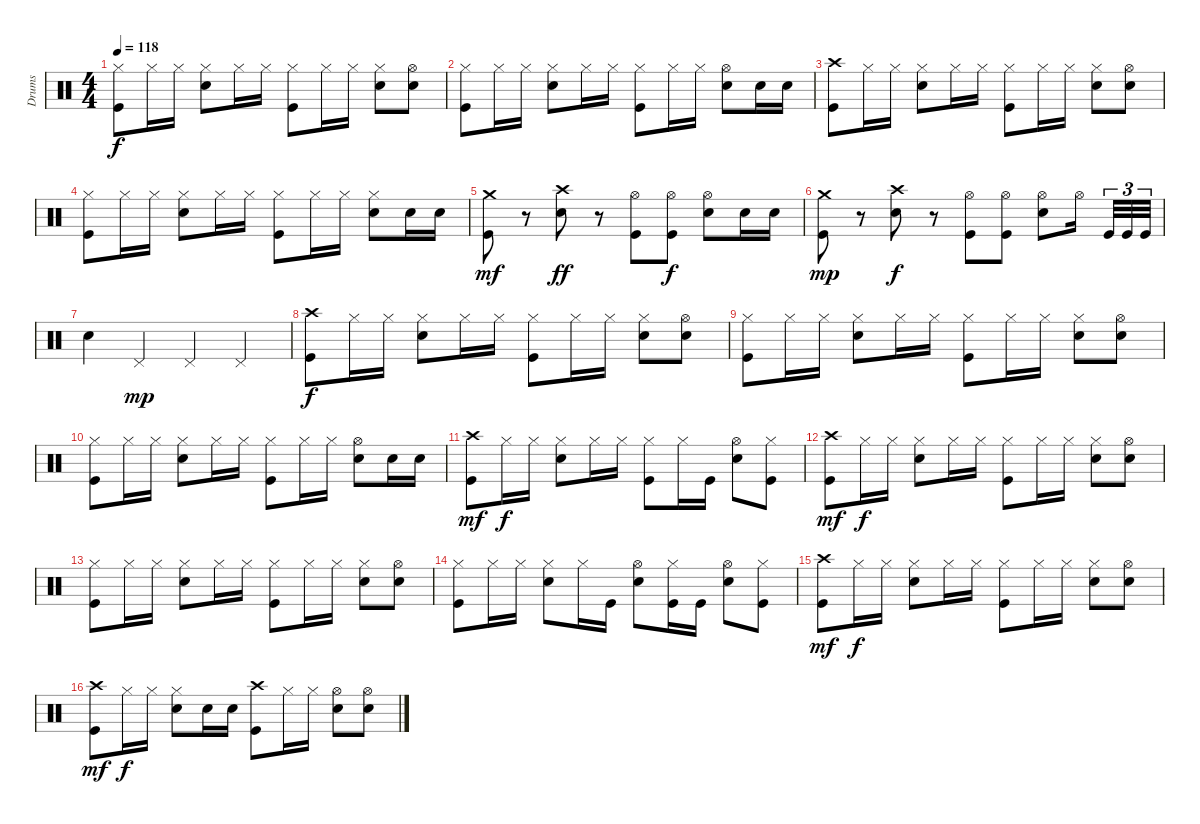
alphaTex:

\track ("Drums" "Drums") {instrument percussion}
\staff {score}
\articulation defaults
\ts (4 4)
\tempo 118
\clef neutral
\ks c
("Hi-Hat (closed)" "Kick (hit)").8{dy f} "Hi-Hat (closed)".16 "Hi-Hat (closed)".16 ("Hi-Hat (closed)" "Snare (hit) 2").8 "Hi-Hat (closed)".16 "Hi-Hat (closed)".16 ("Hi-Hat (closed)" "Kick (hit)").8 "Hi-Hat (closed)".16 "Hi-Hat (closed)".16 ("Hi-Hat (closed)" "Snare (hit) 2").8 ("Hi-Hat (open)" "Snare (hit) 2").8 |
("Hi-Hat (closed)" "Kick (hit)").8 "Hi-Hat (closed)".16 "Hi-Hat (closed)".16 ("Hi-Hat (closed)" "Snare (hit) 2").8 "Hi-Hat (closed)".16 "Hi-Hat (closed)".16 ("Hi-Hat (closed)" "Kick (hit)").8 "Hi-Hat (closed)".16 "Hi-Hat (closed)".16 ("Hi-Hat (open)" "Snare (hit) 2").8 "Snare (hit) 2".16 "Snare (hit) 2".16 |
("Crash high (hit)" "Kick (hit)").8 "Hi-Hat (closed)".16 "Hi-Hat (closed)".16 ("Hi-Hat (closed)" "Snare (hit) 2").8 "Hi-Hat (closed)".16 "Hi-Hat (closed)".16 ("Hi-Hat (closed)" "Kick (hit)").8 "Hi-Hat (closed)".16 "Hi-Hat (closed)".16 ("Hi-Hat (closed)" "Snare (hit) 2").8 ("Hi-Hat (open)" "Snare (hit) 2").8 |
("Hi-Hat (closed)" "Kick (hit)").8 "Hi-Hat (closed)".16 "Hi-Hat (closed)".16 ("Hi-Hat (closed)" "Snare (hit) 2").8 "Hi-Hat (closed)".16 "Hi-Hat (closed)".16 ("Hi-Hat (closed)" "Kick (hit)").8 "Hi-Hat (closed)".16 "Hi-Hat (closed)".16 ("Hi-Hat (closed)" "Snare (hit) 2").8 "Snare (hit) 2".16 "Snare (hit) 2".16 |
("Crash medium (hit)" "Kick (hit)").8{dy mf} r.8 ("Crash high (hit)" "Snare (hit) 2").8{dy ff} r.8 ("Hi-Hat (open)" "Kick (hit)").8 ("Hi-Hat (open)" "Kick (hit)").8{dy f} ("Hi-Hat (open)" "Snare (hit) 2").8 "Snare (hit) 2".16 "Snare (hit) 2".16 |
("Crash medium (hit)" "Kick (hit)").8{dy mp} r.8 ("Crash high (hit)" "Snare (hit) 2").8{dy f} r.8 ("Hi-Hat (open)" "Kick (hit)").8 ("Hi-Hat (open)" "Kick (hit)").8 ("Hi-Hat (open)" "Snare (hit) 2").8 "Hi-Hat (open)".16 "Kick (hit)".32{tu (3 2)} "Kick (hit)".32{tu (3 2)} "Kick (hit)".32{tu (3 2)} |
"Snare (hit) 2".4 "Pedal Hi-Hat (hit)".4{dy mp} "Pedal Hi-Hat (hit)".4 "Pedal Hi-Hat (hit)".4 |
("Crash high (hit)" "Kick (hit)").8{dy f} "Hi-Hat (closed)".16 "Hi-Hat (closed)".16 ("Hi-Hat (closed)" "Snare (hit) 2").8 "Hi-Hat (closed)".16 "Hi-Hat (closed)".16 ("Hi-Hat (closed)" "Kick (hit)").8 "Hi-Hat (closed)".16 "Hi-Hat (closed)".16 ("Hi-Hat (closed)" "Snare (hit) 2").8 ("Hi-Hat (open)" "Snare (hit) 2").8 |
("Hi-Hat (closed)" "Kick (hit)").8 "Hi-Hat (closed)".16 "Hi-Hat (closed)".16 ("Hi-Hat (closed)" "Snare (hit) 2").8 "Hi-Hat (closed)".16 "Hi-Hat (closed)".16 ("Hi-Hat (closed)" "Kick (hit)").8 "Hi-Hat (closed)".16 "Hi-Hat (closed)".16 ("Hi-Hat (closed)" "Snare (hit) 2").8 ("Hi-Hat (open)" "Snare (hit) 2").8 |
("Hi-Hat (closed)" "Kick (hit)").8 "Hi-Hat (closed)".16 "Hi-Hat (closed)".16 ("Hi-Hat (closed)" "Snare (hit) 2").8 "Hi-Hat (closed)".16 "Hi-Hat (closed)".16 ("Hi-Hat (closed)" "Kick (hit)").8 "Hi-Hat (closed)".16 "Hi-Hat (closed)".16 ("Hi-Hat (open)" "Snare (hit) 2").8 "Snare (hit) 2".16 "Snare (hit) 2".16 |
("Crash high (hit)" "Kick (hit)").8{dy mf} "Hi-Hat (closed)".16{dy f} "Hi-Hat (closed)".16 ("Hi-Hat (closed)" "Snare (hit) 2").8 "Hi-Hat (closed)".16 "Hi-Hat (closed)".16 ("Hi-Hat (closed)" "Kick (hit)").8 "Hi-Hat (closed)".16 "Kick (hit)".16 ("Hi-Hat (open)" "Snare (hit) 2").8 ("Hi-Hat (closed)" "Kick (hit)").8 |
("Crash high (hit)" "Kick (hit)").8{dy mf} "Hi-Hat (closed)".16{dy f} "Hi-Hat (closed)".16 ("Hi-Hat (closed)" "Snare (hit) 2").8 "Hi-Hat (closed)".16 "Hi-Hat (closed)".16 ("Hi-Hat (closed)" "Kick (hit)").8 "Hi-Hat (closed)".16 "Hi-Hat (closed)".16 ("Hi-Hat (closed)" "Snare (hit) 2").8 ("Hi-Hat (open)" "Snare (hit) 2").8 |
("Hi-Hat (closed)" "Kick (hit)").8 "Hi-Hat (closed)".16 "Hi-Hat (closed)".16 ("Hi-Hat (closed)" "Snare (hit) 2").8 "Hi-Hat (closed)".16 "Hi-Hat (closed)".16 ("Hi-Hat (closed)" "Kick (hit)").8 "Hi-Hat (closed)".16 "Hi-Hat (closed)".16 ("Hi-Hat (closed)" "Snare (hit) 2").8 ("Hi-Hat (open)" "Snare (hit) 2").8 |
("Hi-Hat (closed)" "Kick (hit)").8 "Hi-Hat (closed)".16 "Hi-Hat (closed)".16 ("Hi-Hat (closed)" "Snare (hit) 2").8 "Hi-Hat (closed)".16 "Kick (hit)".16 ("Hi-Hat (open)" "Snare (hit) 2").8 ("Hi-Hat (closed)" "Kick (hit)").16 "Kick (hit)".16 ("Hi-Hat (open)" "Snare (hit) 2").8 ("Hi-Hat (closed)" "Kick (hit)").8 |
("Crash high (hit)" "Kick (hit)").8{dy mf} "Hi-Hat (closed)".16{dy f} "Hi-Hat (closed)".16 ("Hi-Hat (closed)" "Snare (hit) 2").8 "Hi-Hat (closed)".16 "Hi-Hat (closed)".16 ("Hi-Hat (closed)" "Kick (hit)").8 "Hi-Hat (closed)".16 "Hi-Hat (closed)".16 ("Hi-Hat (closed)" "Snare (hit) 2").8 ("Hi-Hat (open)" "Snare (hit) 2").8 |
("Crash high (hit)" "Kick (hit)").8{dy mf} "Hi-Hat (closed)".16{dy f} "Hi-Hat (closed)".16 ("Hi-Hat (closed)" "Snare (hit) 2").8 "Snare (hit) 2".16 "Snare (hit) 2".16 ("Crash high (hit)" "Kick (hit)").8 "Hi-Hat (closed)".16 "Hi-Hat (closed)".16 ("Hi-Hat (open)" "Snare (hit) 2").8 ("Hi-Hat (open)" "Snare (hit) 2").8
